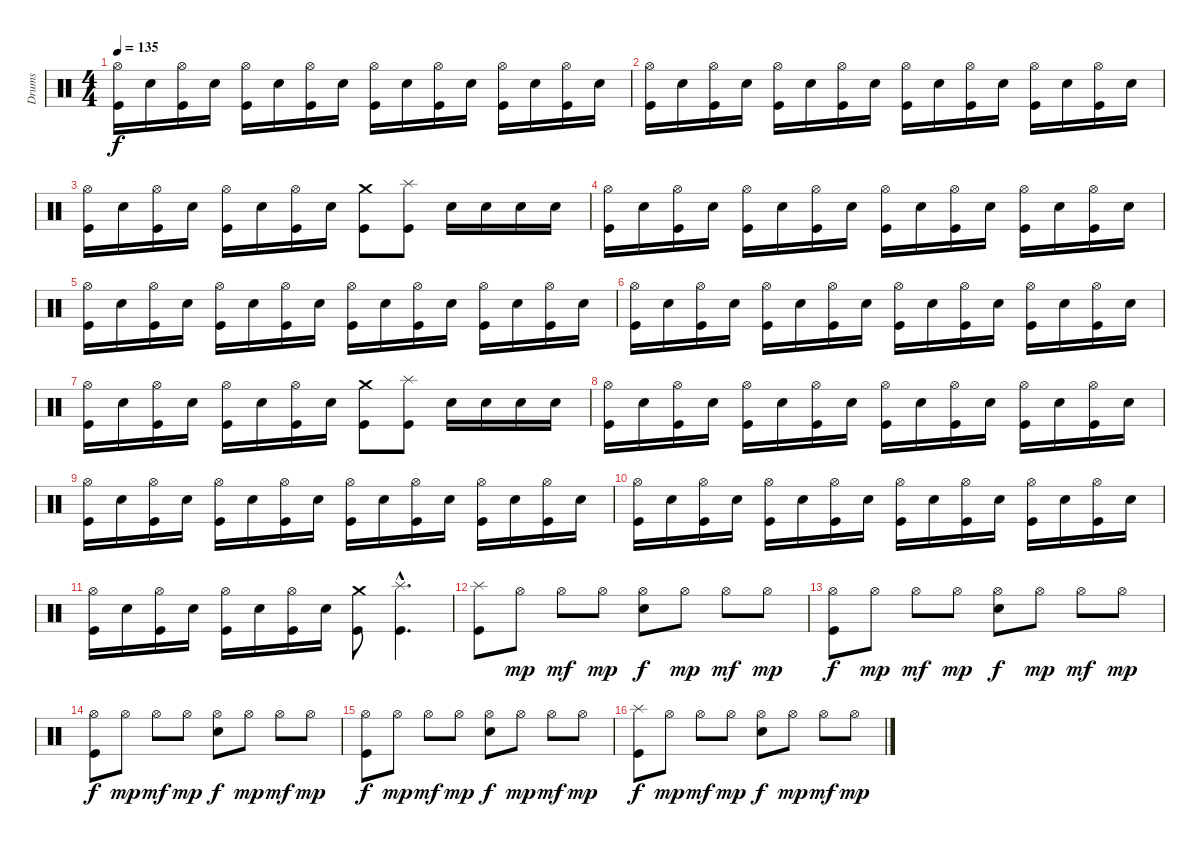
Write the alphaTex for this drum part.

\track ("Drums" "Drums") {instrument percussion}
\staff {score}
\articulation defaults
\ts (4 4)
\tempo 135
\clef neutral
\ks c
("Hi-Hat (open)" "Kick (hit)").16{dy f} "Snare (hit) 2".16 ("Hi-Hat (open)" "Kick (hit)").16 "Snare (hit) 2".16 ("Hi-Hat (open)" "Kick (hit)").16 "Snare (hit) 2".16 ("Hi-Hat (open)" "Kick (hit)").16 "Snare (hit) 2".16 ("Hi-Hat (open)" "Kick (hit)").16 "Snare (hit) 2".16 ("Hi-Hat (open)" "Kick (hit)").16 "Snare (hit) 2".16 ("Hi-Hat (open)" "Kick (hit)").16 "Snare (hit) 2".16 ("Hi-Hat (open)" "Kick (hit)").16 "Snare (hit) 2".16 |
("Hi-Hat (open)" "Kick (hit)").16 "Snare (hit) 2".16 ("Hi-Hat (open)" "Kick (hit)").16 "Snare (hit) 2".16 ("Hi-Hat (open)" "Kick (hit)").16 "Snare (hit) 2".16 ("Hi-Hat (open)" "Kick (hit)").16 "Snare (hit) 2".16 ("Hi-Hat (open)" "Kick (hit)").16 "Snare (hit) 2".16 ("Hi-Hat (open)" "Kick (hit)").16 "Snare (hit) 2".16 ("Hi-Hat (open)" "Kick (hit)").16 "Snare (hit) 2".16 ("Hi-Hat (open)" "Kick (hit)").16 "Snare (hit) 2".16 |
("Hi-Hat (open)" "Kick (hit)").16 "Snare (hit) 2".16 ("Hi-Hat (open)" "Kick (hit)").16 "Snare (hit) 2".16 ("Hi-Hat (open)" "Kick (hit)").16 "Snare (hit) 2".16 ("Hi-Hat (open)" "Kick (hit)").16 "Snare (hit) 2".16 ("Crash medium (hit)" "Kick (hit)").8 ("Splash (hit)" "Kick (hit)").8 "Snare (hit) 2".16 "Snare (hit) 2".16 "Snare (hit) 2".16 "Snare (hit) 2".16 |
("Hi-Hat (open)" "Kick (hit)").16 "Snare (hit) 2".16 ("Hi-Hat (open)" "Kick (hit)").16 "Snare (hit) 2".16 ("Hi-Hat (open)" "Kick (hit)").16 "Snare (hit) 2".16 ("Hi-Hat (open)" "Kick (hit)").16 "Snare (hit) 2".16 ("Hi-Hat (open)" "Kick (hit)").16 "Snare (hit) 2".16 ("Hi-Hat (open)" "Kick (hit)").16 "Snare (hit) 2".16 ("Hi-Hat (open)" "Kick (hit)").16 "Snare (hit) 2".16 ("Hi-Hat (open)" "Kick (hit)").16 "Snare (hit) 2".16 |
("Hi-Hat (open)" "Kick (hit)").16 "Snare (hit) 2".16 ("Hi-Hat (open)" "Kick (hit)").16 "Snare (hit) 2".16 ("Hi-Hat (open)" "Kick (hit)").16 "Snare (hit) 2".16 ("Hi-Hat (open)" "Kick (hit)").16 "Snare (hit) 2".16 ("Hi-Hat (open)" "Kick (hit)").16 "Snare (hit) 2".16 ("Hi-Hat (open)" "Kick (hit)").16 "Snare (hit) 2".16 ("Hi-Hat (open)" "Kick (hit)").16 "Snare (hit) 2".16 ("Hi-Hat (open)" "Kick (hit)").16 "Snare (hit) 2".16 |
("Hi-Hat (open)" "Kick (hit)").16 "Snare (hit) 2".16 ("Hi-Hat (open)" "Kick (hit)").16 "Snare (hit) 2".16 ("Hi-Hat (open)" "Kick (hit)").16 "Snare (hit) 2".16 ("Hi-Hat (open)" "Kick (hit)").16 "Snare (hit) 2".16 ("Hi-Hat (open)" "Kick (hit)").16 "Snare (hit) 2".16 ("Hi-Hat (open)" "Kick (hit)").16 "Snare (hit) 2".16 ("Hi-Hat (open)" "Kick (hit)").16 "Snare (hit) 2".16 ("Hi-Hat (open)" "Kick (hit)").16 "Snare (hit) 2".16 |
("Hi-Hat (open)" "Kick (hit)").16 "Snare (hit) 2".16 ("Hi-Hat (open)" "Kick (hit)").16 "Snare (hit) 2".16 ("Hi-Hat (open)" "Kick (hit)").16 "Snare (hit) 2".16 ("Hi-Hat (open)" "Kick (hit)").16 "Snare (hit) 2".16 ("Crash medium (hit)" "Kick (hit)").8 ("Splash (hit)" "Kick (hit)").8 "Snare (hit) 2".16 "Snare (hit) 2".16 "Snare (hit) 2".16 "Snare (hit) 2".16 |
("Hi-Hat (open)" "Kick (hit)").16 "Snare (hit) 2".16 ("Hi-Hat (open)" "Kick (hit)").16 "Snare (hit) 2".16 ("Hi-Hat (open)" "Kick (hit)").16 "Snare (hit) 2".16 ("Hi-Hat (open)" "Kick (hit)").16 "Snare (hit) 2".16 ("Hi-Hat (open)" "Kick (hit)").16 "Snare (hit) 2".16 ("Hi-Hat (open)" "Kick (hit)").16 "Snare (hit) 2".16 ("Hi-Hat (open)" "Kick (hit)").16 "Snare (hit) 2".16 ("Hi-Hat (open)" "Kick (hit)").16 "Snare (hit) 2".16 |
("Hi-Hat (open)" "Kick (hit)").16 "Snare (hit) 2".16 ("Hi-Hat (open)" "Kick (hit)").16 "Snare (hit) 2".16 ("Hi-Hat (open)" "Kick (hit)").16 "Snare (hit) 2".16 ("Hi-Hat (open)" "Kick (hit)").16 "Snare (hit) 2".16 ("Hi-Hat (open)" "Kick (hit)").16 "Snare (hit) 2".16 ("Hi-Hat (open)" "Kick (hit)").16 "Snare (hit) 2".16 ("Hi-Hat (open)" "Kick (hit)").16 "Snare (hit) 2".16 ("Hi-Hat (open)" "Kick (hit)").16 "Snare (hit) 2".16 |
("Hi-Hat (open)" "Kick (hit)").16 "Snare (hit) 2".16 ("Hi-Hat (open)" "Kick (hit)").16 "Snare (hit) 2".16 ("Hi-Hat (open)" "Kick (hit)").16 "Snare (hit) 2".16 ("Hi-Hat (open)" "Kick (hit)").16 "Snare (hit) 2".16 ("Hi-Hat (open)" "Kick (hit)").16 "Snare (hit) 2".16 ("Hi-Hat (open)" "Kick (hit)").16 "Snare (hit) 2".16 ("Hi-Hat (open)" "Kick (hit)").16 "Snare (hit) 2".16 ("Hi-Hat (open)" "Kick (hit)").16 "Snare (hit) 2".16 |
("Hi-Hat (open)" "Kick (hit)").16 "Snare (hit) 2".16 ("Hi-Hat (open)" "Kick (hit)").16 "Snare (hit) 2".16 ("Hi-Hat (open)" "Kick (hit)").16 "Snare (hit) 2".16 ("Hi-Hat (open)" "Kick (hit)").16 "Snare (hit) 2".16 ("Crash medium (hit)" "Kick (hit)").8 ("Splash (hit)"{hac} "Kick (hit)"{hac}).4{d} |
("Splash (hit)" "Kick (hit)").8 "Hi-Hat (open)".8{dy mp} "Hi-Hat (open)".8{dy mf} "Hi-Hat (open)".8{dy mp} ("Hi-Hat (open)" "Snare (hit) 2").8{dy f} "Hi-Hat (open)".8{dy mp} "Hi-Hat (open)".8{dy mf} "Hi-Hat (open)".8{dy mp} |
("Hi-Hat (open)" "Kick (hit)").8{dy f} "Hi-Hat (open)".8{dy mp} "Hi-Hat (open)".8{dy mf} "Hi-Hat (open)".8{dy mp} ("Hi-Hat (open)" "Snare (hit) 2").8{dy f} "Hi-Hat (open)".8{dy mp} "Hi-Hat (open)".8{dy mf} "Hi-Hat (open)".8{dy mp} |
("Hi-Hat (open)" "Kick (hit)").8{dy f} "Hi-Hat (open)".8{dy mp} "Hi-Hat (open)".8{dy mf} "Hi-Hat (open)".8{dy mp} ("Hi-Hat (open)" "Snare (hit) 2").8{dy f} "Hi-Hat (open)".8{dy mp} "Hi-Hat (open)".8{dy mf} "Hi-Hat (open)".8{dy mp} |
("Hi-Hat (open)" "Kick (hit)").8{dy f} "Hi-Hat (open)".8{dy mp} "Hi-Hat (open)".8{dy mf} "Hi-Hat (open)".8{dy mp} ("Hi-Hat (open)" "Snare (hit) 2").8{dy f} "Hi-Hat (open)".8{dy mp} "Hi-Hat (open)".8{dy mf} "Hi-Hat (open)".8{dy mp} |
("Splash (hit)" "Kick (hit)").8{dy f} "Hi-Hat (open)".8{dy mp} "Hi-Hat (open)".8{dy mf} "Hi-Hat (open)".8{dy mp} ("Hi-Hat (open)" "Snare (hit) 2").8{dy f} "Hi-Hat (open)".8{dy mp} "Hi-Hat (open)".8{dy mf} "Hi-Hat (open)".8{dy mp}
